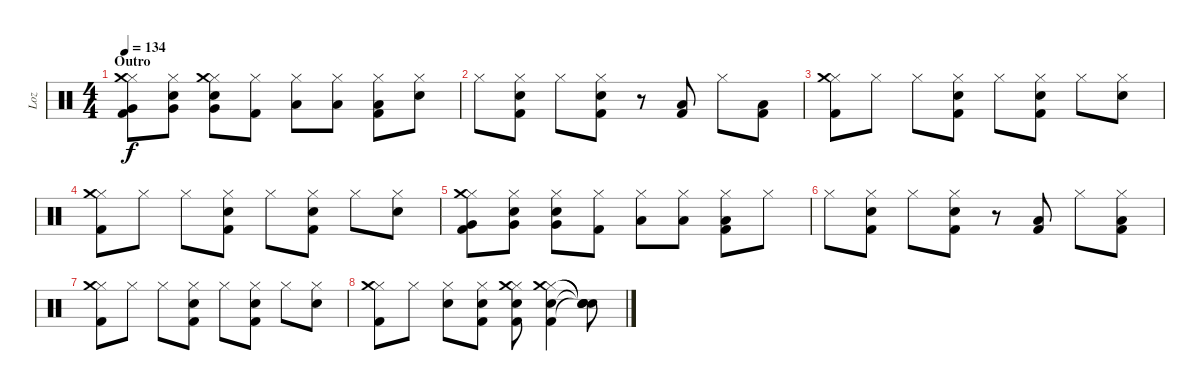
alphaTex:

\track ("Loz" "Loz") {instrument percussion}
\staff {score}
\articulation defaults
\ts (4 4)
\section ("" "Outro")
\tempo 134
\clef neutral
\ks c
("Hi-Hat (closed)" "Crash medium (hit)" "Very Low Tom (hit)" "Kick (hit) 2").8{dy f} ("Hi-Hat (closed)" "Electric Snare (hit)" "Very Low Tom (hit)").8 ("Hi-Hat (closed)" "Crash medium (hit)" "Electric Snare (hit)" "Very Low Tom (hit)").8 ("Hi-Hat (closed)" "Kick (hit) 2").8 ("Hi-Hat (closed)" "Low Floor Tom (hit)").8 ("Hi-Hat (closed)" "Low Floor Tom (hit)").8 ("Hi-Hat (closed)" "Low Floor Tom (hit)" "Kick (hit) 2").8 ("Hi-Hat (closed)" "Electric Snare (hit)").8 |
"Hi-Hat (closed)".8 ("Hi-Hat (closed)" "Electric Snare (hit)" "Kick (hit) 2").8 "Hi-Hat (closed)".8 ("Hi-Hat (closed)" "Electric Snare (hit)" "Kick (hit) 2").8 r.8 ("Low Floor Tom (hit)" "Kick (hit) 2").8 "Hi-Hat (closed)".8 ("Low Floor Tom (hit)" "Kick (hit) 2").8 |
("Hi-Hat (closed)" "Crash medium (hit)" "Kick (hit) 2").8 "Hi-Hat (closed)".8 "Hi-Hat (closed)".8 ("Hi-Hat (closed)" "Electric Snare (hit)" "Kick (hit) 2").8 "Hi-Hat (closed)".8 ("Hi-Hat (closed)" "Electric Snare (hit)" "Kick (hit) 2").8 "Hi-Hat (closed)".8 ("Hi-Hat (closed)" "Electric Snare (hit)").8 |
("Hi-Hat (closed)" "Crash medium (hit)" "Kick (hit) 2").8 "Hi-Hat (closed)".8 "Hi-Hat (closed)".8 ("Hi-Hat (closed)" "Electric Snare (hit)" "Kick (hit) 2").8 "Hi-Hat (closed)".8 ("Hi-Hat (closed)" "Electric Snare (hit)" "Kick (hit) 2").8 "Hi-Hat (closed)".8 ("Hi-Hat (closed)" "Electric Snare (hit)").8 |
("Hi-Hat (closed)" "Crash medium (hit)" "Very Low Tom (hit)" "Kick (hit) 2").8 ("Hi-Hat (closed)" "Electric Snare (hit)" "Very Low Tom (hit)").8 ("Hi-Hat (closed)" "Electric Snare (hit)" "Very Low Tom (hit)").8 ("Hi-Hat (closed)" "Kick (hit) 2").8 ("Hi-Hat (closed)" "Low Floor Tom (hit)").8 ("Hi-Hat (closed)" "Low Floor Tom (hit)").8 ("Hi-Hat (closed)" "Low Floor Tom (hit)" "Kick (hit) 2").8 "Hi-Hat (closed)".8 |
"Hi-Hat (closed)".8 ("Hi-Hat (closed)" "Electric Snare (hit)" "Kick (hit) 2").8 "Hi-Hat (closed)".8 ("Hi-Hat (closed)" "Electric Snare (hit)" "Kick (hit) 2").8 r.8 ("Low Floor Tom (hit)" "Kick (hit) 2").8 "Hi-Hat (closed)".8 ("Hi-Hat (closed)" "Low Floor Tom (hit)" "Kick (hit) 2").8 |
("Hi-Hat (closed)" "Crash medium (hit)" "Kick (hit) 2").8 "Hi-Hat (closed)".8 "Hi-Hat (closed)".8 ("Hi-Hat (closed)" "Electric Snare (hit)" "Kick (hit) 2").8 "Hi-Hat (closed)".8 ("Hi-Hat (closed)" "Electric Snare (hit)" "Kick (hit) 2").8 "Hi-Hat (closed)".8 ("Hi-Hat (closed)" "Electric Snare (hit)").8 |
("Hi-Hat (closed)" "Crash medium (hit)" "Kick (hit) 2").8 "Hi-Hat (closed)".8 ("Hi-Hat (closed)" "Electric Snare (hit)").8 ("Hi-Hat (closed)" "Electric Snare (hit)" "Kick (hit) 2").8 ("Hi-Hat (closed)" "Crash medium (hit)" "Electric Snare (hit)" "Kick (hit) 2").8 ("Hi-Hat (closed)" "Crash medium (hit)" "Electric Snare (hit)" "Kick (hit) 2").4 ("Snare (hit)"{t} "Snare (hit)"{t} "Snare (hit)"{t} "Snare (hit)"{t}).8
